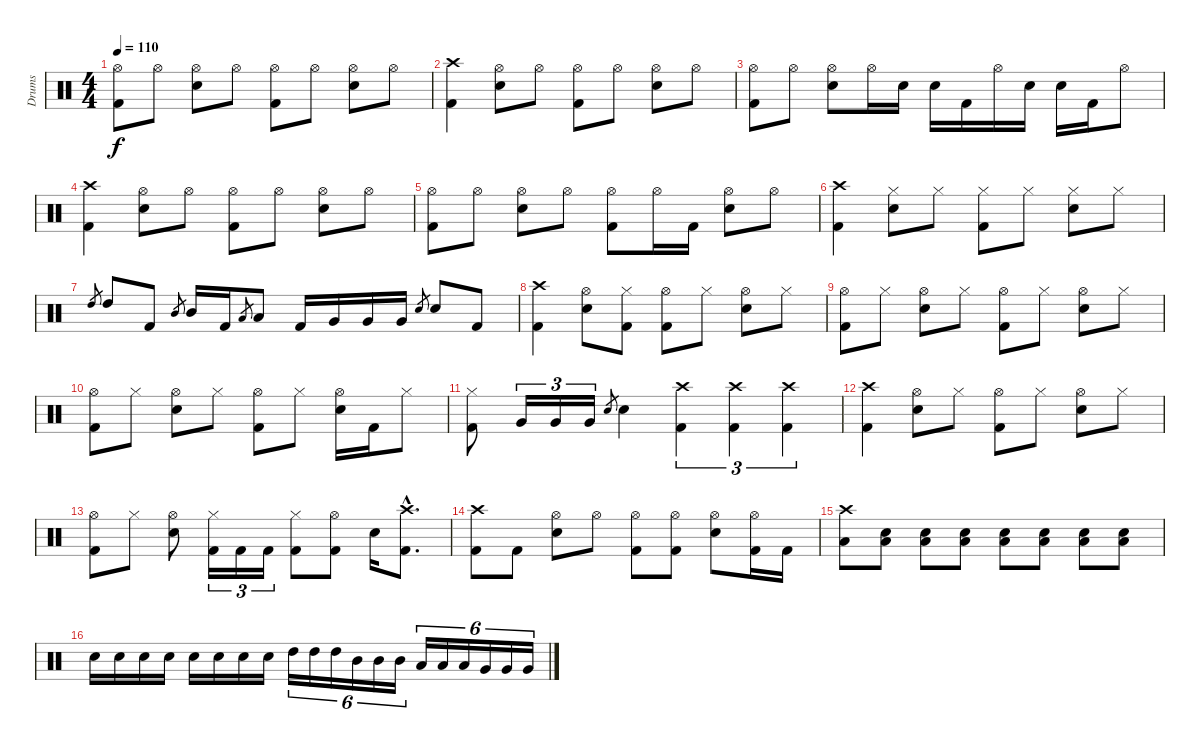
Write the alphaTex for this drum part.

\track ("Drums" "Drums") {instrument percussion}
\staff {score}
\articulation defaults
\ts (4 4)
\tempo 110
\clef neutral
\ks c
("Hi-Hat (open)" "Kick (hit) 2").8{dy f} "Hi-Hat (open)".8 ("Hi-Hat (open)" "Electric Snare (hit)").8 "Hi-Hat (open)".8 ("Hi-Hat (open)" "Kick (hit) 2").8 "Hi-Hat (open)".8 ("Hi-Hat (open)" "Electric Snare (hit)").8 "Hi-Hat (open)".8 |
("Crash high (hit)" "Kick (hit) 2").4 ("Hi-Hat (open)" "Electric Snare (hit)").8 "Hi-Hat (open)".8 ("Hi-Hat (open)" "Kick (hit) 2").8 "Hi-Hat (open)".8 ("Hi-Hat (open)" "Electric Snare (hit)").8 "Hi-Hat (open)".8 |
("Hi-Hat (open)" "Kick (hit) 2").8 "Hi-Hat (open)".8 ("Hi-Hat (open)" "Electric Snare (hit)").8 "Hi-Hat (open)".16 "Electric Snare (hit)".16 "Electric Snare (hit)".16 "Kick (hit) 2".16 "Hi-Hat (open)".16 "Electric Snare (hit)".16 "Electric Snare (hit)".16 "Kick (hit) 2".16 "Hi-Hat (open)".8 |
("Crash high (hit)" "Kick (hit) 2").4 ("Hi-Hat (open)" "Electric Snare (hit)").8 "Hi-Hat (open)".8 ("Hi-Hat (open)" "Kick (hit) 2").8 "Hi-Hat (open)".8 ("Hi-Hat (open)" "Electric Snare (hit)").8 "Hi-Hat (open)".8 |
("Hi-Hat (open)" "Kick (hit) 2").8 "Hi-Hat (open)".8 ("Hi-Hat (open)" "Electric Snare (hit)").8 "Hi-Hat (open)".8 ("Hi-Hat (open)" "Kick (hit) 2").8 "Hi-Hat (open)".16 "Kick (hit) 2".16 ("Hi-Hat (open)" "Electric Snare (hit)").8 "Hi-Hat (open)".8 |
("Crash high (hit)" "Kick (hit) 2").4 ("Hi-Hat (closed)" "Electric Snare (hit)").8 "Hi-Hat (closed)".8 ("Hi-Hat (closed)" "Kick (hit) 2").8 "Hi-Hat (closed)".8 ("Hi-Hat (closed)" "Electric Snare (hit)").8 "Hi-Hat (closed)".8 |
"High Tom (hit)".8{gr} "High Tom (hit)".8 "Kick (hit) 2".8 "Mid Tom (hit)".8{gr} "Mid Tom (hit)".16 "Kick (hit) 2".16 "Low Tom (hit)".8{gr} "Low Tom (hit)".8 "Kick (hit) 2".16 "Very Low Tom (hit)".16 "Very Low Tom (hit)".16 "Very Low Tom (hit)".16 "Electric Snare (hit)".8{gr} "Electric Snare (hit)".8 "Kick (hit) 2".8 |
("Crash high (hit)" "Kick (hit) 2").4 ("Hi-Hat (open)" "Electric Snare (hit)").8 ("Hi-Hat (closed)" "Kick (hit) 2").8 ("Hi-Hat (open)" "Kick (hit) 2").8 "Hi-Hat (closed)".8 ("Hi-Hat (open)" "Electric Snare (hit)").8 "Hi-Hat (closed)".8 |
("Hi-Hat (open)" "Kick (hit) 2").8 "Hi-Hat (closed)".8 ("Hi-Hat (open)" "Electric Snare (hit)").8 "Hi-Hat (closed)".8 ("Hi-Hat (open)" "Kick (hit) 2").8 "Hi-Hat (closed)".8 ("Hi-Hat (open)" "Electric Snare (hit)").8 "Hi-Hat (closed)".8 |
("Hi-Hat (open)" "Kick (hit) 2").8 "Hi-Hat (closed)".8 ("Hi-Hat (open)" "Electric Snare (hit)").8 "Hi-Hat (closed)".8 ("Hi-Hat (open)" "Kick (hit) 2").8 "Hi-Hat (closed)".8 ("Hi-Hat (open)" "Electric Snare (hit)").16 "Kick (hit) 2".16 "Hi-Hat (closed)".8 |
("Hi-Hat (closed)" "Kick (hit) 2").8 "Very Low Tom (hit)".16{tu (3 2)} "Very Low Tom (hit)".16{tu (3 2)} "Very Low Tom (hit)".16{tu (3 2)} "Electric Snare (hit)".8{gr} "Electric Snare (hit)".4 ("Crash high (hit)" "Kick (hit) 2").4{tu (3 2)} ("Crash high (hit)" "Kick (hit) 2").4{tu (3 2)} ("Crash high (hit)" "Kick (hit) 2").4{tu (3 2)} |
("Crash high (hit)" "Kick (hit) 2").4 ("Hi-Hat (open)" "Electric Snare (hit)").8 "Hi-Hat (closed)".8 ("Hi-Hat (open)" "Kick (hit) 2").8 "Hi-Hat (closed)".8 ("Hi-Hat (open)" "Electric Snare (hit)").8 "Hi-Hat (closed)".8 |
("Hi-Hat (open)" "Kick (hit) 2").8 "Hi-Hat (closed)".8 ("Hi-Hat (open)" "Electric Snare (hit)").8 ("Hi-Hat (closed)" "Kick (hit) 2").16{tu (3 2)} "Kick (hit) 2".16{tu (3 2)} "Kick (hit) 2".16{tu (3 2)} ("Hi-Hat (closed)" "Kick (hit) 2").8 ("Hi-Hat (open)" "Kick (hit) 2").8 "Electric Snare (hit)".16 ("Crash high (hit)"{hac} "Kick (hit) 2"{hac}).8{d} |
("Crash high (hit)" "Kick (hit) 2").8 "Kick (hit) 2".8 ("Hi-Hat (open)" "Electric Snare (hit)").8 "Hi-Hat (open)".8 ("Hi-Hat (open)" "Kick (hit) 2").8 ("Hi-Hat (open)" "Kick (hit) 2").8 ("Hi-Hat (open)" "Electric Snare (hit)").8 ("Hi-Hat (open)" "Kick (hit) 2").16 "Kick (hit) 2".16 |
("Crash high (hit)" "Low Tom (hit)").8 ("Electric Snare (hit)" "Low Tom (hit)").8 ("Electric Snare (hit)" "Low Tom (hit)").8 ("Electric Snare (hit)" "Low Tom (hit)").8 ("Electric Snare (hit)" "Low Tom (hit)").8 ("Electric Snare (hit)" "Low Tom (hit)").8 ("Electric Snare (hit)" "Low Tom (hit)").8 ("Electric Snare (hit)" "Low Tom (hit)").8 |
"Electric Snare (hit)".16 "Electric Snare (hit)".16 "Electric Snare (hit)".16 "Electric Snare (hit)".16 "Electric Snare (hit)".16 "Electric Snare (hit)".16 "Electric Snare (hit)".16 "Electric Snare (hit)".16 "High Tom (hit)".16{tu (6 4)} "High Tom (hit)".16{tu (6 4)} "High Tom (hit)".16{tu (6 4)} "Mid Tom (hit)".16{tu (6 4)} "Mid Tom (hit)".16{tu (6 4)} "Mid Tom (hit)".16{tu (6 4)} "Low Tom (hit)".16{tu (6 4)} "Low Tom (hit)".16{tu (6 4)} "Low Tom (hit)".16{tu (6 4)} "Very Low Tom (hit)".16{tu (6 4)} "Very Low Tom (hit)".16{tu (6 4)} "Very Low Tom (hit)".16{tu (6 4)}
